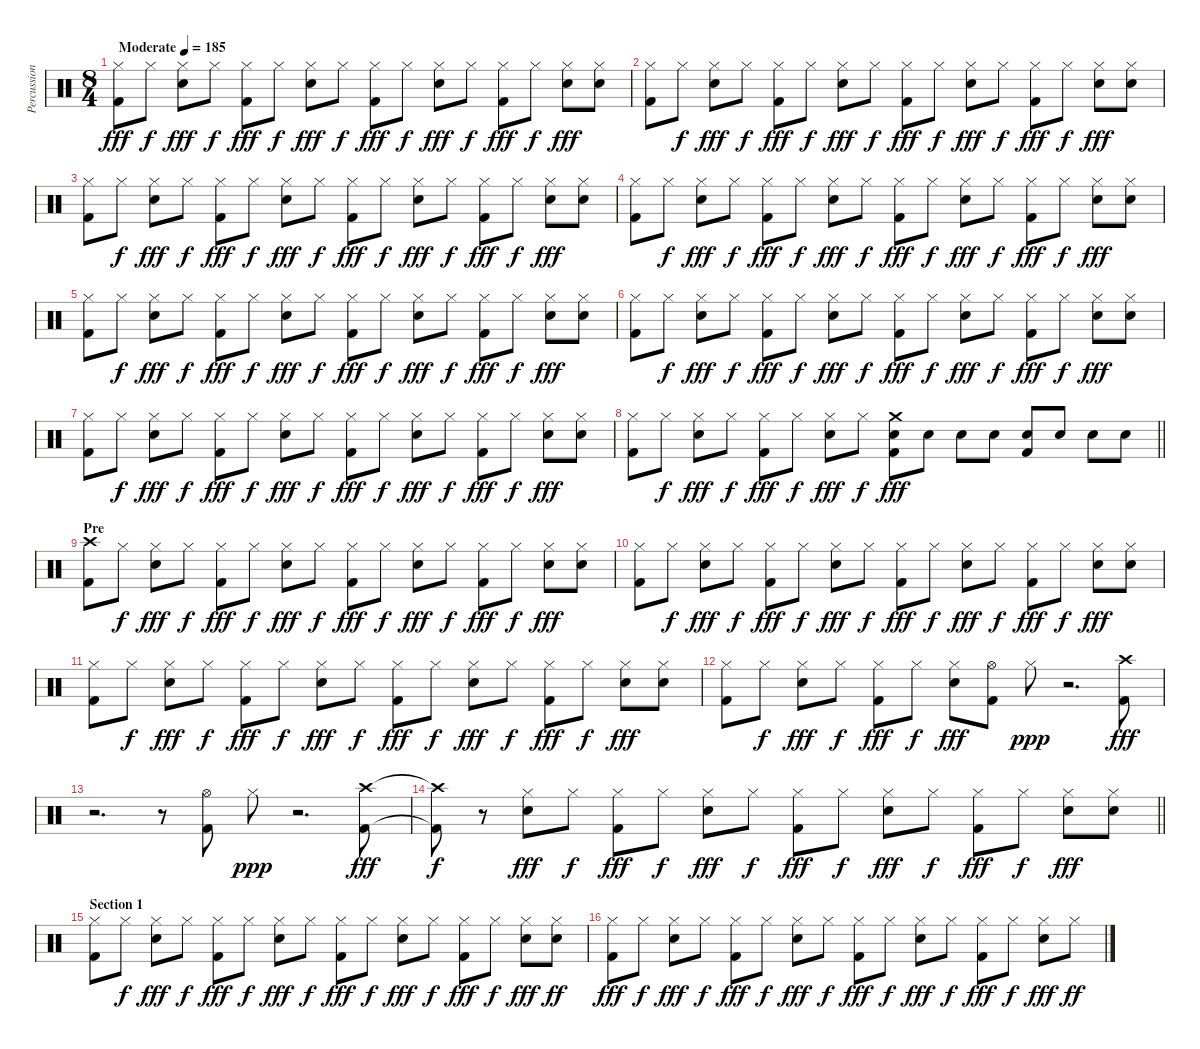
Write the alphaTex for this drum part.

\track ("Percussion" "Percussion") {instrument percussion}
\staff {score}
\articulation defaults
\ts (8 4)
\tempo (185 "Moderate")
\clef neutral
\ks c
("Hi-Hat (closed)" "Kick (hit) 2").8{dy fff} "Hi-Hat (closed)".8{dy f} ("Hi-Hat (closed)" "Electric Snare (hit)").8{dy fff} "Hi-Hat (closed)".8{dy f} ("Hi-Hat (closed)" "Kick (hit) 2").8{dy fff} "Hi-Hat (closed)".8{dy f} ("Hi-Hat (closed)" "Electric Snare (hit)").8{dy fff} "Hi-Hat (closed)".8{dy f} ("Hi-Hat (closed)" "Kick (hit) 2").8{dy fff} "Hi-Hat (closed)".8{dy f} ("Hi-Hat (closed)" "Electric Snare (hit)").8{dy fff} "Hi-Hat (closed)".8{dy f} ("Hi-Hat (closed)" "Kick (hit) 2").8{dy fff} "Hi-Hat (closed)".8{dy f} ("Hi-Hat (closed)" "Electric Snare (hit)").8{dy fff} ("Hi-Hat (closed)" "Electric Snare (hit)").8 |
("Hi-Hat (closed)" "Kick (hit) 2").8 "Hi-Hat (closed)".8{dy f} ("Hi-Hat (closed)" "Electric Snare (hit)").8{dy fff} "Hi-Hat (closed)".8{dy f} ("Hi-Hat (closed)" "Kick (hit) 2").8{dy fff} "Hi-Hat (closed)".8{dy f} ("Hi-Hat (closed)" "Electric Snare (hit)").8{dy fff} "Hi-Hat (closed)".8{dy f} ("Hi-Hat (closed)" "Kick (hit) 2").8{dy fff} "Hi-Hat (closed)".8{dy f} ("Hi-Hat (closed)" "Electric Snare (hit)").8{dy fff} "Hi-Hat (closed)".8{dy f} ("Hi-Hat (closed)" "Kick (hit) 2").8{dy fff} "Hi-Hat (closed)".8{dy f} ("Hi-Hat (closed)" "Electric Snare (hit)").8{dy fff} ("Hi-Hat (closed)" "Electric Snare (hit)").8 |
("Hi-Hat (closed)" "Kick (hit) 2").8 "Hi-Hat (closed)".8{dy f} ("Hi-Hat (closed)" "Electric Snare (hit)").8{dy fff} "Hi-Hat (closed)".8{dy f} ("Hi-Hat (closed)" "Kick (hit) 2").8{dy fff} "Hi-Hat (closed)".8{dy f} ("Hi-Hat (closed)" "Electric Snare (hit)").8{dy fff} "Hi-Hat (closed)".8{dy f} ("Hi-Hat (closed)" "Kick (hit) 2").8{dy fff} "Hi-Hat (closed)".8{dy f} ("Hi-Hat (closed)" "Electric Snare (hit)").8{dy fff} "Hi-Hat (closed)".8{dy f} ("Hi-Hat (closed)" "Kick (hit) 2").8{dy fff} "Hi-Hat (closed)".8{dy f} ("Hi-Hat (closed)" "Electric Snare (hit)").8{dy fff} ("Hi-Hat (closed)" "Electric Snare (hit)").8 |
("Hi-Hat (closed)" "Kick (hit) 2").8 "Hi-Hat (closed)".8{dy f} ("Hi-Hat (closed)" "Electric Snare (hit)").8{dy fff} "Hi-Hat (closed)".8{dy f} ("Hi-Hat (closed)" "Kick (hit) 2").8{dy fff} "Hi-Hat (closed)".8{dy f} ("Hi-Hat (closed)" "Electric Snare (hit)").8{dy fff} "Hi-Hat (closed)".8{dy f} ("Hi-Hat (closed)" "Kick (hit) 2").8{dy fff} "Hi-Hat (closed)".8{dy f} ("Hi-Hat (closed)" "Electric Snare (hit)").8{dy fff} "Hi-Hat (closed)".8{dy f} ("Hi-Hat (closed)" "Kick (hit) 2").8{dy fff} "Hi-Hat (closed)".8{dy f} ("Hi-Hat (closed)" "Electric Snare (hit)").8{dy fff} ("Hi-Hat (closed)" "Electric Snare (hit)").8 |
("Hi-Hat (closed)" "Kick (hit) 2").8 "Hi-Hat (closed)".8{dy f} ("Hi-Hat (closed)" "Electric Snare (hit)").8{dy fff} "Hi-Hat (closed)".8{dy f} ("Hi-Hat (closed)" "Kick (hit) 2").8{dy fff} "Hi-Hat (closed)".8{dy f} ("Hi-Hat (closed)" "Electric Snare (hit)").8{dy fff} "Hi-Hat (closed)".8{dy f} ("Hi-Hat (closed)" "Kick (hit) 2").8{dy fff} "Hi-Hat (closed)".8{dy f} ("Hi-Hat (closed)" "Electric Snare (hit)").8{dy fff} "Hi-Hat (closed)".8{dy f} ("Hi-Hat (closed)" "Kick (hit) 2").8{dy fff} "Hi-Hat (closed)".8{dy f} ("Hi-Hat (closed)" "Electric Snare (hit)").8{dy fff} ("Hi-Hat (closed)" "Electric Snare (hit)").8 |
("Hi-Hat (closed)" "Kick (hit) 2").8 "Hi-Hat (closed)".8{dy f} ("Hi-Hat (closed)" "Electric Snare (hit)").8{dy fff} "Hi-Hat (closed)".8{dy f} ("Hi-Hat (closed)" "Kick (hit) 2").8{dy fff} "Hi-Hat (closed)".8{dy f} ("Hi-Hat (closed)" "Electric Snare (hit)").8{dy fff} "Hi-Hat (closed)".8{dy f} ("Hi-Hat (closed)" "Kick (hit) 2").8{dy fff} "Hi-Hat (closed)".8{dy f} ("Hi-Hat (closed)" "Electric Snare (hit)").8{dy fff} "Hi-Hat (closed)".8{dy f} ("Hi-Hat (closed)" "Kick (hit) 2").8{dy fff} "Hi-Hat (closed)".8{dy f} ("Hi-Hat (closed)" "Electric Snare (hit)").8{dy fff} ("Hi-Hat (closed)" "Electric Snare (hit)").8 |
("Hi-Hat (closed)" "Kick (hit) 2").8 "Hi-Hat (closed)".8{dy f} ("Hi-Hat (closed)" "Electric Snare (hit)").8{dy fff} "Hi-Hat (closed)".8{dy f} ("Hi-Hat (closed)" "Kick (hit) 2").8{dy fff} "Hi-Hat (closed)".8{dy f} ("Hi-Hat (closed)" "Electric Snare (hit)").8{dy fff} "Hi-Hat (closed)".8{dy f} ("Hi-Hat (closed)" "Kick (hit) 2").8{dy fff} "Hi-Hat (closed)".8{dy f} ("Hi-Hat (closed)" "Electric Snare (hit)").8{dy fff} "Hi-Hat (closed)".8{dy f} ("Hi-Hat (closed)" "Kick (hit) 2").8{dy fff} "Hi-Hat (closed)".8{dy f} ("Hi-Hat (closed)" "Electric Snare (hit)").8{dy fff} ("Hi-Hat (closed)" "Electric Snare (hit)").8 |
\barLineRight lightlight
("Hi-Hat (closed)" "Kick (hit) 2").8 "Hi-Hat (closed)".8{dy f} ("Hi-Hat (closed)" "Electric Snare (hit)").8{dy fff} "Hi-Hat (closed)".8{dy f} ("Hi-Hat (closed)" "Kick (hit) 2").8{dy fff} "Hi-Hat (closed)".8{dy f} ("Hi-Hat (closed)" "Electric Snare (hit)").8{dy fff} "Hi-Hat (closed)".8{dy f} ("Crash medium (hit)" "Electric Snare (hit)" "Kick (hit) 2").8{dy fff} "Electric Snare (hit)".8 "Electric Snare (hit)".8 "Electric Snare (hit)".8 ("Electric Snare (hit)" "Kick (hit) 2").8 "Electric Snare (hit)".8 "Electric Snare (hit)".8 "Electric Snare (hit)".8 |
\section ("" "Pre")
("Crash high (hit)" "Kick (hit) 2").8 "Hi-Hat (closed)".8{dy f} ("Hi-Hat (closed)" "Electric Snare (hit)").8{dy fff} "Hi-Hat (closed)".8{dy f} ("Hi-Hat (closed)" "Kick (hit) 2").8{dy fff} "Hi-Hat (closed)".8{dy f} ("Hi-Hat (closed)" "Electric Snare (hit)").8{dy fff} "Hi-Hat (closed)".8{dy f} ("Hi-Hat (closed)" "Kick (hit) 2").8{dy fff} "Hi-Hat (closed)".8{dy f} ("Hi-Hat (closed)" "Electric Snare (hit)").8{dy fff} "Hi-Hat (closed)".8{dy f} ("Hi-Hat (closed)" "Kick (hit) 2").8{dy fff} "Hi-Hat (closed)".8{dy f} ("Hi-Hat (closed)" "Electric Snare (hit)").8{dy fff} ("Hi-Hat (closed)" "Electric Snare (hit)").8 |
("Hi-Hat (closed)" "Kick (hit) 2").8 "Hi-Hat (closed)".8{dy f} ("Hi-Hat (closed)" "Electric Snare (hit)").8{dy fff} "Hi-Hat (closed)".8{dy f} ("Hi-Hat (closed)" "Kick (hit) 2").8{dy fff} "Hi-Hat (closed)".8{dy f} ("Hi-Hat (closed)" "Electric Snare (hit)").8{dy fff} "Hi-Hat (closed)".8{dy f} ("Hi-Hat (closed)" "Kick (hit) 2").8{dy fff} "Hi-Hat (closed)".8{dy f} ("Hi-Hat (closed)" "Electric Snare (hit)").8{dy fff} "Hi-Hat (closed)".8{dy f} ("Hi-Hat (closed)" "Kick (hit) 2").8{dy fff} "Hi-Hat (closed)".8{dy f} ("Hi-Hat (closed)" "Electric Snare (hit)").8{dy fff} ("Hi-Hat (closed)" "Electric Snare (hit)").8 |
("Hi-Hat (closed)" "Kick (hit) 2").8 "Hi-Hat (closed)".8{dy f} ("Hi-Hat (closed)" "Electric Snare (hit)").8{dy fff} "Hi-Hat (closed)".8{dy f} ("Hi-Hat (closed)" "Kick (hit) 2").8{dy fff} "Hi-Hat (closed)".8{dy f} ("Hi-Hat (closed)" "Electric Snare (hit)").8{dy fff} "Hi-Hat (closed)".8{dy f} ("Hi-Hat (closed)" "Kick (hit) 2").8{dy fff} "Hi-Hat (closed)".8{dy f} ("Hi-Hat (closed)" "Electric Snare (hit)").8{dy fff} "Hi-Hat (closed)".8{dy f} ("Hi-Hat (closed)" "Kick (hit) 2").8{dy fff} "Hi-Hat (closed)".8{dy f} ("Hi-Hat (closed)" "Electric Snare (hit)").8{dy fff} ("Hi-Hat (closed)" "Electric Snare (hit)").8 |
("Hi-Hat (closed)" "Kick (hit) 2").8 "Hi-Hat (closed)".8{dy f} ("Hi-Hat (closed)" "Electric Snare (hit)").8{dy fff} "Hi-Hat (closed)".8{dy f} ("Hi-Hat (closed)" "Kick (hit) 2").8{dy fff} "Hi-Hat (closed)".8{dy f} ("Hi-Hat (closed)" "Electric Snare (hit)").8{dy fff} ("Hi-Hat (open)" "Kick (hit) 2").8 "Hi-Hat (closed)".8{dy ppp} r.2{d} ("Crash high (hit)" "Kick (hit) 2").8{dy fff} |
r.2{d} r.8 ("Hi-Hat (open)" "Kick (hit) 2").8 "Hi-Hat (closed)".8{dy ppp} r.2{d} ("Crash high (hit)" "Kick (hit) 2").8{dy fff} |
\barLineRight lightlight
("Crash high (hit)"{t} "Kick (hit) 2"{t}).8{dy f} r.8 ("Hi-Hat (closed)" "Electric Snare (hit)").8{dy fff} "Hi-Hat (closed)".8{dy f} ("Hi-Hat (closed)" "Kick (hit) 2").8{dy fff} "Hi-Hat (closed)".8{dy f} ("Hi-Hat (closed)" "Electric Snare (hit)").8{dy fff} "Hi-Hat (closed)".8{dy f} ("Hi-Hat (closed)" "Kick (hit) 2").8{dy fff} "Hi-Hat (closed)".8{dy f} ("Hi-Hat (closed)" "Electric Snare (hit)").8{dy fff} "Hi-Hat (closed)".8{dy f} ("Hi-Hat (closed)" "Kick (hit) 2").8{dy fff} "Hi-Hat (closed)".8{dy f} ("Hi-Hat (closed)" "Electric Snare (hit)").8{dy fff} ("Hi-Hat (closed)" "Electric Snare (hit)").8 |
\section ("" "Section 1")
("Hi-Hat (closed)" "Kick (hit) 2").8 "Hi-Hat (closed)".8{dy f} ("Hi-Hat (closed)" "Electric Snare (hit)").8{dy fff} "Hi-Hat (closed)".8{dy f} ("Hi-Hat (closed)" "Kick (hit) 2").8{dy fff} "Hi-Hat (closed)".8{dy f} ("Hi-Hat (closed)" "Electric Snare (hit)").8{dy fff} "Hi-Hat (closed)".8{dy f} ("Hi-Hat (closed)" "Kick (hit) 2").8{dy fff} "Hi-Hat (closed)".8{dy f} ("Hi-Hat (closed)" "Electric Snare (hit)").8{dy fff} "Hi-Hat (closed)".8{dy f} ("Hi-Hat (closed)" "Kick (hit) 2").8{dy fff} "Hi-Hat (closed)".8{dy f} ("Hi-Hat (closed)" "Electric Snare (hit)").8{dy fff} ("Hi-Hat (closed)" "Electric Snare (hit)").8{dy ff} |
("Hi-Hat (closed)" "Kick (hit) 2").8{dy fff} "Hi-Hat (closed)".8{dy f} ("Hi-Hat (closed)" "Electric Snare (hit)").8{dy fff} "Hi-Hat (closed)".8{dy f} ("Hi-Hat (closed)" "Kick (hit) 2").8{dy fff} "Hi-Hat (closed)".8{dy f} ("Hi-Hat (closed)" "Electric Snare (hit)").8{dy fff} "Hi-Hat (closed)".8{dy f} ("Hi-Hat (closed)" "Kick (hit) 2").8{dy fff} "Hi-Hat (closed)".8{dy f} ("Hi-Hat (closed)" "Electric Snare (hit)").8{dy fff} "Hi-Hat (closed)".8{dy f} ("Hi-Hat (closed)" "Kick (hit) 2").8{dy fff} "Hi-Hat (closed)".8{dy f} ("Hi-Hat (closed)" "Electric Snare (hit)").8{dy fff} "Hi-Hat (closed)".8{dy ff}
